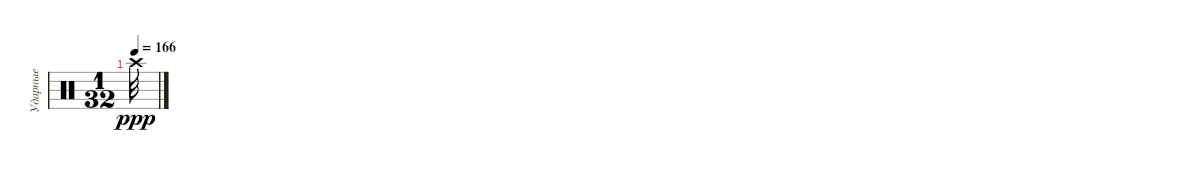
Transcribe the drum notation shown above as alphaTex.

\track ("Ударные" "Ударные") {instrument percussion}
\staff {score}
\articulation defaults
\ts (1 32)
\tempo 166
\clef neutral
\ks c "Crash high (hit)".32{dy ppp}
